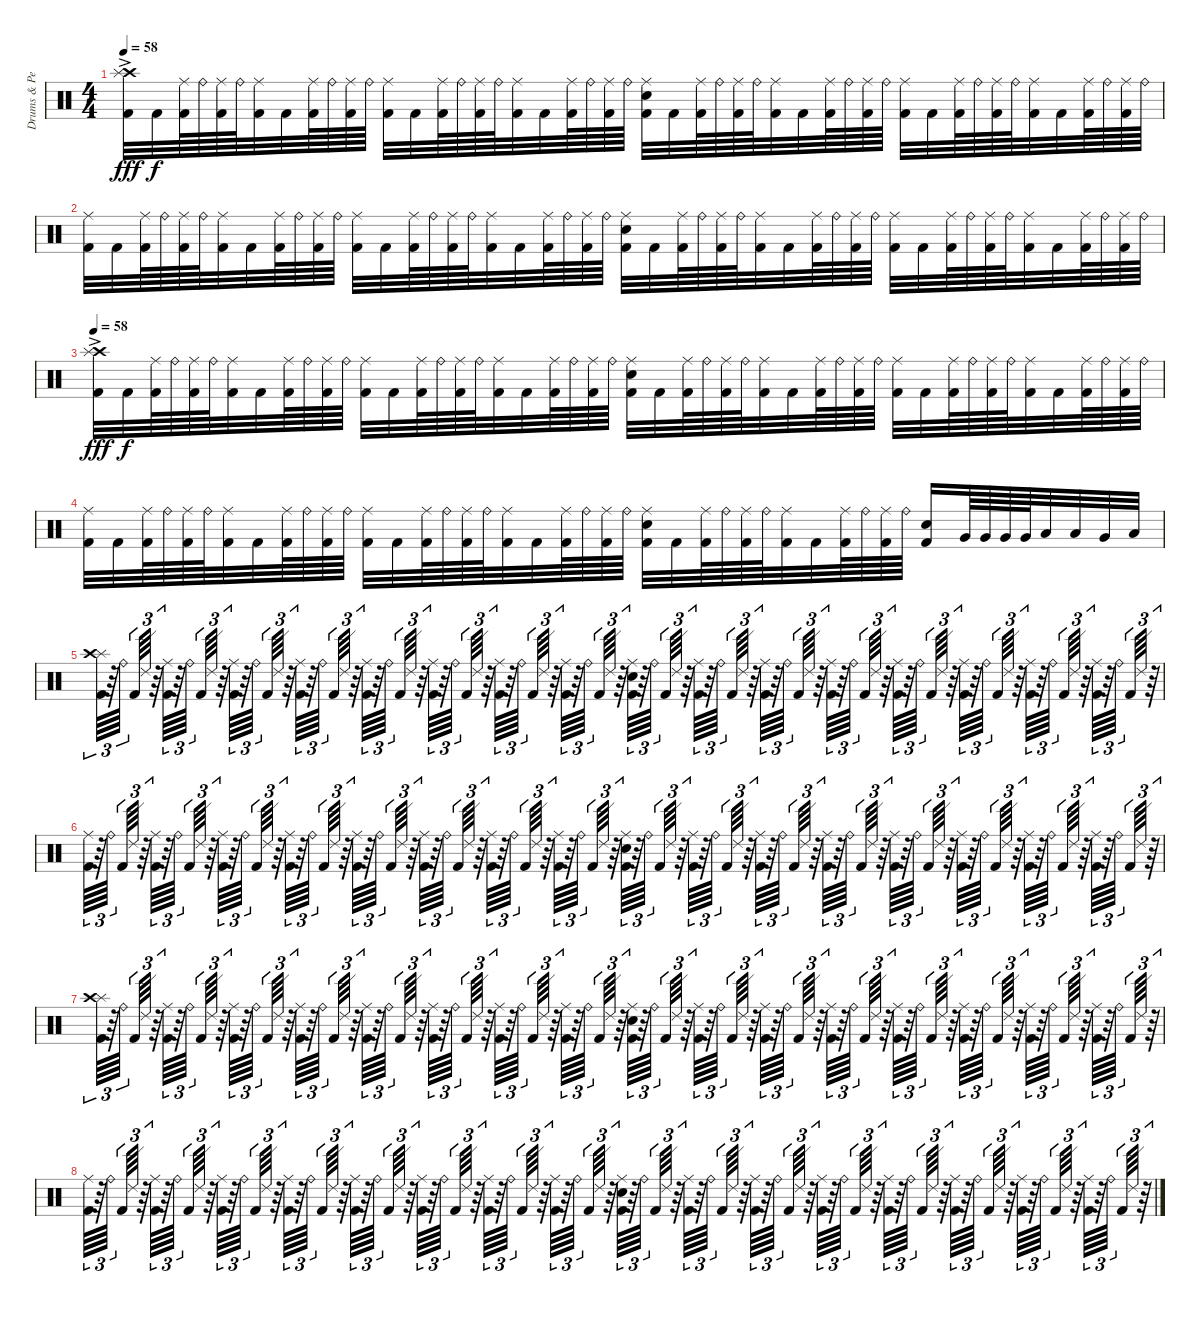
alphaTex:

\track ("Drums & Percussion" "Drums & Pe") {instrument percussion}
\staff {score}
\articulation defaults
\ts (4 4)
\tempo 58
\clef neutral
\ks c
("Crash high (hit)" "Splash (hit)"{ac} "Kick (hit) 2").32{dy fff volume 6} "Kick (hit) 2".32{dy f} ("Ride (middle)" "Kick (hit) 2").64 "Ride (bell)".64 ("Ride (middle)" "Kick (hit) 2").64 "Ride (bell)".64 ("Ride (middle)" "Kick (hit) 2").32 "Kick (hit) 2".32 ("Ride (middle)" "Kick (hit) 2").64 "Ride (bell)".64 ("Ride (middle)" "Kick (hit) 2").64 "Ride (bell)".64 ("Ride (middle)" "Kick (hit) 2").32 "Kick (hit) 2".32 ("Ride (middle)" "Kick (hit) 2").64 "Ride (bell)".64 ("Ride (middle)" "Kick (hit) 2").64 "Ride (bell)".64 ("Ride (middle)" "Kick (hit) 2").32 "Kick (hit) 2".32 ("Ride (middle)" "Kick (hit) 2").64 "Ride (bell)".64 ("Ride (middle)" "Kick (hit) 2").64 "Ride (bell)".64 ("Ride (middle)" "Electric Snare (hit)" "Kick (hit) 2").32 "Kick (hit) 2".32 ("Ride (middle)" "Kick (hit) 2").64 "Ride (bell)".64 ("Ride (middle)" "Kick (hit) 2").64 "Ride (bell)".64 ("Ride (middle)" "Kick (hit) 2").32 "Kick (hit) 2".32 ("Ride (middle)" "Kick (hit) 2").64 "Ride (bell)".64 ("Ride (middle)" "Kick (hit) 2").64 "Ride (bell)".64 ("Ride (middle)" "Kick (hit) 2").32 "Kick (hit) 2".32 ("Ride (middle)" "Kick (hit) 2").64 "Ride (bell)".64 ("Ride (middle)" "Kick (hit) 2").64 "Ride (bell)".64 ("Ride (middle)" "Kick (hit) 2").32 "Kick (hit) 2".32 ("Ride (middle)" "Kick (hit) 2").64 "Ride (bell)".64 ("Ride (middle)" "Kick (hit) 2").64 "Ride (bell)".64 |
("Ride (middle)" "Kick (hit) 2").32 "Kick (hit) 2".32 ("Ride (middle)" "Kick (hit) 2").64 "Ride (bell)".64 ("Ride (middle)" "Kick (hit) 2").64 "Ride (bell)".64 ("Ride (middle)" "Kick (hit) 2").32 "Kick (hit) 2".32 ("Ride (middle)" "Kick (hit) 2").64 "Ride (bell)".64 ("Ride (middle)" "Kick (hit) 2").64 "Ride (bell)".64 ("Ride (middle)" "Kick (hit) 2").32 "Kick (hit) 2".32 ("Ride (middle)" "Kick (hit) 2").64 "Ride (bell)".64 ("Ride (middle)" "Kick (hit) 2").64 "Ride (bell)".64 ("Ride (middle)" "Kick (hit) 2").32 "Kick (hit) 2".32 ("Ride (middle)" "Kick (hit) 2").64 "Ride (bell)".64 ("Ride (middle)" "Kick (hit) 2").64 "Ride (bell)".64 ("Ride (middle)" "Electric Snare (hit)" "Kick (hit) 2").32 "Kick (hit) 2".32 ("Ride (middle)" "Kick (hit) 2").64 "Ride (bell)".64 ("Ride (middle)" "Kick (hit) 2").64 "Ride (bell)".64 ("Ride (middle)" "Kick (hit) 2").32 "Kick (hit) 2".32 ("Ride (middle)" "Kick (hit) 2").64 "Ride (bell)".64 ("Ride (middle)" "Kick (hit) 2").64 "Ride (bell)".64 ("Ride (middle)" "Kick (hit) 2").32 "Kick (hit) 2".32 ("Ride (middle)" "Kick (hit) 2").64 "Ride (bell)".64 ("Ride (middle)" "Kick (hit) 2").64 "Ride (bell)".64 ("Ride (middle)" "Kick (hit) 2").32 "Kick (hit) 2".32 ("Ride (middle)" "Kick (hit) 2").64 "Ride (bell)".64 ("Ride (middle)" "Kick (hit) 2").64 "Ride (bell)".64 |
\tempo 58
("Crash high (hit)" "Splash (hit)"{ac} "Kick (hit) 2").32{dy fff} "Kick (hit) 2".32{dy f} ("Ride (middle)" "Kick (hit) 2").64 "Ride (bell)".64 ("Ride (middle)" "Kick (hit) 2").64 "Ride (bell)".64 ("Ride (middle)" "Kick (hit) 2").32 "Kick (hit) 2".32 ("Ride (middle)" "Kick (hit) 2").64 "Ride (bell)".64 ("Ride (middle)" "Kick (hit) 2").64 "Ride (bell)".64 ("Ride (middle)" "Kick (hit) 2").32 "Kick (hit) 2".32 ("Ride (middle)" "Kick (hit) 2").64 "Ride (bell)".64 ("Ride (middle)" "Kick (hit) 2").64 "Ride (bell)".64 ("Ride (middle)" "Kick (hit) 2").32 "Kick (hit) 2".32 ("Ride (middle)" "Kick (hit) 2").64 "Ride (bell)".64 ("Ride (middle)" "Kick (hit) 2").64 "Ride (bell)".64 ("Ride (middle)" "Electric Snare (hit)" "Kick (hit) 2").32 "Kick (hit) 2".32 ("Ride (middle)" "Kick (hit) 2").64 "Ride (bell)".64 ("Ride (middle)" "Kick (hit) 2").64 "Ride (bell)".64 ("Ride (middle)" "Kick (hit) 2").32 "Kick (hit) 2".32 ("Ride (middle)" "Kick (hit) 2").64 "Ride (bell)".64 ("Ride (middle)" "Kick (hit) 2").64 "Ride (bell)".64 ("Ride (middle)" "Kick (hit) 2").32 "Kick (hit) 2".32 ("Ride (middle)" "Kick (hit) 2").64 "Ride (bell)".64 ("Ride (middle)" "Kick (hit) 2").64 "Ride (bell)".64 ("Ride (middle)" "Kick (hit) 2").32 "Kick (hit) 2".32 ("Ride (middle)" "Kick (hit) 2").64 "Ride (bell)".64 ("Ride (middle)" "Kick (hit) 2").64 "Ride (bell)".64 |
("Ride (middle)" "Kick (hit) 2").32 "Kick (hit) 2".32 ("Ride (middle)" "Kick (hit) 2").64 "Ride (bell)".64 ("Ride (middle)" "Kick (hit) 2").64 "Ride (bell)".64 ("Ride (middle)" "Kick (hit) 2").32 "Kick (hit) 2".32 ("Ride (middle)" "Kick (hit) 2").64 "Ride (bell)".64 ("Ride (middle)" "Kick (hit) 2").64 "Ride (bell)".64 ("Ride (middle)" "Kick (hit) 2").32 "Kick (hit) 2".32 ("Ride (middle)" "Kick (hit) 2").64 "Ride (bell)".64 ("Ride (middle)" "Kick (hit) 2").64 "Ride (bell)".64 ("Ride (middle)" "Kick (hit) 2").32 "Kick (hit) 2".32 ("Ride (middle)" "Kick (hit) 2").64 "Ride (bell)".64 ("Ride (middle)" "Kick (hit) 2").64 "Ride (bell)".64 ("Ride (middle)" "Electric Snare (hit)" "Kick (hit) 2").32 "Kick (hit) 2".32 ("Ride (middle)" "Kick (hit) 2").64 "Ride (bell)".64 ("Ride (middle)" "Kick (hit) 2").64 "Ride (bell)".64 ("Ride (middle)" "Kick (hit) 2").32 "Kick (hit) 2".32 ("Ride (middle)" "Kick (hit) 2").64 "Ride (bell)".64 ("Ride (middle)" "Kick (hit) 2").64 "Ride (bell)".64 ("Electric Snare (hit)" "Kick (hit) 2").16 "Very Low Tom (hit)".64 "Very Low Tom (hit)".64 "Very Low Tom (hit)".64 "Very Low Tom (hit)".64 "Low Tom (hit)".32 "Low Tom (hit)".32 "Very Low Tom (hit)".32 "Low Floor Tom (hit)".32 |
("Splash (hit)" "Crash high (hit)" "Kick (hit) 2").64{tu (3 2) volume 0} r.64{tu (3 2)} "Ride (bell)".64{tu (3 2) beam splitsecondary} "Kick (hit) 2".64{tu (3 2)} "Ride (edge) 2".64{tu (3 2)} r.64{tu (3 2)} ("Ride (middle)" "Kick (hit) 2").64{tu (3 2)} r.64{tu (3 2)} "Ride (bell)".64{tu (3 2) beam splitsecondary} "Kick (hit) 2".64{tu (3 2)} "Ride (edge) 2".64{tu (3 2)} r.64{tu (3 2)} ("Ride (middle)" "Kick (hit) 2").64{tu (3 2)} r.64{tu (3 2)} "Ride (bell)".64{tu (3 2) beam splitsecondary} "Kick (hit) 2".64{tu (3 2)} "Ride (edge) 2".64{tu (3 2)} r.64{tu (3 2)} ("Ride (middle)" "Kick (hit) 2").64{tu (3 2)} r.64{tu (3 2)} "Ride (bell)".64{tu (3 2) beam splitsecondary} "Kick (hit) 2".64{tu (3 2)} "Ride (edge) 2".64{tu (3 2)} r.64{tu (3 2)} ("Ride (middle)" "Kick (hit) 2").64{tu (3 2)} r.64{tu (3 2)} "Ride (bell)".64{tu (3 2) beam splitsecondary} "Kick (hit) 2".64{tu (3 2)} "Ride (edge) 2".64{tu (3 2)} r.64{tu (3 2)} ("Ride (middle)" "Kick (hit) 2").64{tu (3 2)} r.64{tu (3 2)} "Ride (bell)".64{tu (3 2) beam splitsecondary} "Kick (hit) 2".64{tu (3 2)} "Ride (edge) 2".64{tu (3 2)} r.64{tu (3 2)} ("Ride (middle)" "Kick (hit) 2").64{tu (3 2)} r.64{tu (3 2)} "Ride (bell)".64{tu (3 2) beam splitsecondary} "Kick (hit) 2".64{tu (3 2)} "Ride (edge) 2".64{tu (3 2)} r.64{tu (3 2)} ("Ride (middle)" "Kick (hit) 2").64{tu (3 2)} r.64{tu (3 2)} "Ride (bell)".64{tu (3 2) beam splitsecondary} "Kick (hit) 2".64{tu (3 2)} "Ride (edge) 2".64{tu (3 2)} r.64{tu (3 2)} ("Ride (middle)" "Electric Snare (hit)" "Kick (hit) 2").64{tu (3 2)} r.64{tu (3 2)} "Ride (bell)".64{tu (3 2) beam splitsecondary} "Kick (hit) 2".64{tu (3 2)} "Ride (edge) 2".64{tu (3 2)} r.64{tu (3 2)} ("Ride (middle)" "Kick (hit) 2").64{tu (3 2)} r.64{tu (3 2)} "Ride (bell)".64{tu (3 2) beam splitsecondary} "Kick (hit) 2".64{tu (3 2)} "Ride (edge) 2".64{tu (3 2)} r.64{tu (3 2)} ("Ride (middle)" "Kick (hit) 2").64{tu (3 2)} r.64{tu (3 2)} "Ride (bell)".64{tu (3 2) beam splitsecondary} "Kick (hit) 2".64{tu (3 2)} "Ride (edge) 2".64{tu (3 2)} r.64{tu (3 2)} ("Ride (middle)" "Kick (hit) 2").64{tu (3 2)} r.64{tu (3 2)} "Ride (bell)".64{tu (3 2) beam splitsecondary} "Kick (hit) 2".64{tu (3 2)} "Ride (edge) 2".64{tu (3 2)} r.64{tu (3 2)} ("Ride (middle)" "Kick (hit) 2").64{tu (3 2)} r.64{tu (3 2)} "Ride (bell)".64{tu (3 2) beam splitsecondary} "Kick (hit) 2".64{tu (3 2)} "Ride (edge) 2".64{tu (3 2)} r.64{tu (3 2)} ("Ride (middle)" "Kick (hit) 2").64{tu (3 2)} r.64{tu (3 2)} "Ride (bell)".64{tu (3 2) beam splitsecondary} "Kick (hit) 2".64{tu (3 2)} "Ride (edge) 2".64{tu (3 2)} r.64{tu (3 2)} ("Ride (middle)" "Kick (hit) 2").64{tu (3 2)} r.64{tu (3 2)} "Ride (bell)".64{tu (3 2) beam splitsecondary} "Kick (hit) 2".64{tu (3 2)} "Ride (edge) 2".64{tu (3 2)} r.64{tu (3 2)} ("Ride (middle)" "Kick (hit) 2").64{tu (3 2)} r.64{tu (3 2)} "Ride (bell)".64{tu (3 2) beam splitsecondary} "Kick (hit) 2".64{tu (3 2)} "Ride (edge) 2".64{tu (3 2)} r.64{tu (3 2)} |
("Ride (middle)" "Kick (hit) 2").64{tu (3 2)} r.64{tu (3 2)} "Ride (bell)".64{tu (3 2) beam splitsecondary} "Kick (hit) 2".64{tu (3 2)} "Ride (edge) 2".64{tu (3 2)} r.64{tu (3 2)} ("Ride (middle)" "Kick (hit) 2").64{tu (3 2)} r.64{tu (3 2)} "Ride (bell)".64{tu (3 2) beam splitsecondary} "Kick (hit) 2".64{tu (3 2)} "Ride (edge) 2".64{tu (3 2)} r.64{tu (3 2)} ("Ride (middle)" "Kick (hit) 2").64{tu (3 2)} r.64{tu (3 2)} "Ride (bell)".64{tu (3 2) beam splitsecondary} "Kick (hit) 2".64{tu (3 2)} "Ride (edge) 2".64{tu (3 2)} r.64{tu (3 2)} ("Ride (middle)" "Kick (hit) 2").64{tu (3 2)} r.64{tu (3 2)} "Ride (bell)".64{tu (3 2) beam splitsecondary} "Kick (hit) 2".64{tu (3 2)} "Ride (edge) 2".64{tu (3 2)} r.64{tu (3 2)} ("Ride (middle)" "Kick (hit) 2").64{tu (3 2)} r.64{tu (3 2)} "Ride (bell)".64{tu (3 2) beam splitsecondary} "Kick (hit) 2".64{tu (3 2)} "Ride (edge) 2".64{tu (3 2)} r.64{tu (3 2)} ("Ride (middle)" "Kick (hit) 2").64{tu (3 2)} r.64{tu (3 2)} "Ride (bell)".64{tu (3 2) beam splitsecondary} "Kick (hit) 2".64{tu (3 2)} "Ride (edge) 2".64{tu (3 2)} r.64{tu (3 2)} ("Ride (middle)" "Kick (hit) 2").64{tu (3 2)} r.64{tu (3 2)} "Ride (bell)".64{tu (3 2) beam splitsecondary} "Kick (hit) 2".64{tu (3 2)} "Ride (edge) 2".64{tu (3 2)} r.64{tu (3 2)} ("Ride (middle)" "Kick (hit) 2").64{tu (3 2)} r.64{tu (3 2)} "Ride (bell)".64{tu (3 2) beam splitsecondary} "Kick (hit) 2".64{tu (3 2)} "Ride (edge) 2".64{tu (3 2)} r.64{tu (3 2)} ("Ride (middle)" "Electric Snare (hit)" "Kick (hit) 2").64{tu (3 2)} r.64{tu (3 2)} "Ride (bell)".64{tu (3 2) beam splitsecondary} "Kick (hit) 2".64{tu (3 2)} "Ride (edge) 2".64{tu (3 2)} r.64{tu (3 2)} ("Ride (middle)" "Kick (hit) 2").64{tu (3 2)} r.64{tu (3 2)} "Ride (bell)".64{tu (3 2) beam splitsecondary} "Kick (hit) 2".64{tu (3 2)} "Ride (edge) 2".64{tu (3 2)} r.64{tu (3 2)} ("Ride (middle)" "Kick (hit) 2").64{tu (3 2)} r.64{tu (3 2)} "Ride (bell)".64{tu (3 2) beam splitsecondary} "Kick (hit) 2".64{tu (3 2)} "Ride (edge) 2".64{tu (3 2)} r.64{tu (3 2)} ("Ride (middle)" "Kick (hit) 2").64{tu (3 2)} r.64{tu (3 2)} "Ride (bell)".64{tu (3 2) beam splitsecondary} "Kick (hit) 2".64{tu (3 2)} "Ride (edge) 2".64{tu (3 2)} r.64{tu (3 2)} ("Ride (middle)" "Kick (hit) 2").64{tu (3 2)} r.64{tu (3 2)} "Ride (bell)".64{tu (3 2) beam splitsecondary} "Kick (hit) 2".64{tu (3 2)} "Ride (edge) 2".64{tu (3 2)} r.64{tu (3 2)} ("Ride (middle)" "Kick (hit) 2").64{tu (3 2)} r.64{tu (3 2)} "Ride (bell)".64{tu (3 2) beam splitsecondary} "Kick (hit) 2".64{tu (3 2)} "Ride (edge) 2".64{tu (3 2)} r.64{tu (3 2)} ("Ride (middle)" "Kick (hit) 2").64{tu (3 2)} r.64{tu (3 2)} "Ride (bell)".64{tu (3 2) beam splitsecondary} "Kick (hit) 2".64{tu (3 2)} "Ride (edge) 2".64{tu (3 2)} r.64{tu (3 2)} ("Ride (middle)" "Kick (hit) 2").64{tu (3 2)} r.64{tu (3 2)} "Ride (bell)".64{tu (3 2) beam splitsecondary} "Kick (hit) 2".64{tu (3 2)} "Ride (edge) 2".64{tu (3 2)} r.64{tu (3 2)} |
("Splash (hit)" "Crash high (hit)" "Kick (hit) 2").64{tu (3 2)} r.64{tu (3 2)} "Ride (bell)".64{tu (3 2) beam splitsecondary} "Kick (hit) 2".64{tu (3 2)} "Ride (edge) 2".64{tu (3 2)} r.64{tu (3 2)} ("Ride (middle)" "Kick (hit) 2").64{tu (3 2)} r.64{tu (3 2)} "Ride (bell)".64{tu (3 2) beam splitsecondary} "Kick (hit) 2".64{tu (3 2)} "Ride (edge) 2".64{tu (3 2)} r.64{tu (3 2)} ("Ride (middle)" "Kick (hit) 2").64{tu (3 2)} r.64{tu (3 2)} "Ride (bell)".64{tu (3 2) beam splitsecondary} "Kick (hit) 2".64{tu (3 2)} "Ride (edge) 2".64{tu (3 2)} r.64{tu (3 2)} ("Ride (middle)" "Kick (hit) 2").64{tu (3 2)} r.64{tu (3 2)} "Ride (bell)".64{tu (3 2) beam splitsecondary} "Kick (hit) 2".64{tu (3 2)} "Ride (edge) 2".64{tu (3 2)} r.64{tu (3 2)} ("Ride (middle)" "Kick (hit) 2").64{tu (3 2)} r.64{tu (3 2)} "Ride (bell)".64{tu (3 2) beam splitsecondary} "Kick (hit) 2".64{tu (3 2)} "Ride (edge) 2".64{tu (3 2)} r.64{tu (3 2)} ("Ride (middle)" "Kick (hit) 2").64{tu (3 2)} r.64{tu (3 2)} "Ride (bell)".64{tu (3 2) beam splitsecondary} "Kick (hit) 2".64{tu (3 2)} "Ride (edge) 2".64{tu (3 2)} r.64{tu (3 2)} ("Ride (middle)" "Kick (hit) 2").64{tu (3 2)} r.64{tu (3 2)} "Ride (bell)".64{tu (3 2) beam splitsecondary} "Kick (hit) 2".64{tu (3 2)} "Ride (edge) 2".64{tu (3 2)} r.64{tu (3 2)} ("Ride (middle)" "Kick (hit) 2").64{tu (3 2)} r.64{tu (3 2)} "Ride (bell)".64{tu (3 2) beam splitsecondary} "Kick (hit) 2".64{tu (3 2)} "Ride (edge) 2".64{tu (3 2)} r.64{tu (3 2)} ("Ride (middle)" "Electric Snare (hit)" "Kick (hit) 2").64{tu (3 2)} r.64{tu (3 2)} "Ride (bell)".64{tu (3 2) beam splitsecondary} "Kick (hit) 2".64{tu (3 2)} "Ride (edge) 2".64{tu (3 2)} r.64{tu (3 2)} ("Ride (middle)" "Kick (hit) 2").64{tu (3 2)} r.64{tu (3 2)} "Ride (bell)".64{tu (3 2) beam splitsecondary} "Kick (hit) 2".64{tu (3 2)} "Ride (edge) 2".64{tu (3 2)} r.64{tu (3 2)} ("Ride (middle)" "Kick (hit) 2").64{tu (3 2)} r.64{tu (3 2)} "Ride (bell)".64{tu (3 2) beam splitsecondary} "Kick (hit) 2".64{tu (3 2)} "Ride (edge) 2".64{tu (3 2)} r.64{tu (3 2)} ("Ride (middle)" "Kick (hit) 2").64{tu (3 2)} r.64{tu (3 2)} "Ride (bell)".64{tu (3 2) beam splitsecondary} "Kick (hit) 2".64{tu (3 2)} "Ride (edge) 2".64{tu (3 2)} r.64{tu (3 2)} ("Ride (middle)" "Kick (hit) 2").64{tu (3 2)} r.64{tu (3 2)} "Ride (bell)".64{tu (3 2) beam splitsecondary} "Kick (hit) 2".64{tu (3 2)} "Ride (edge) 2".64{tu (3 2)} r.64{tu (3 2)} ("Ride (middle)" "Kick (hit) 2").64{tu (3 2)} r.64{tu (3 2)} "Ride (bell)".64{tu (3 2) beam splitsecondary} "Kick (hit) 2".64{tu (3 2)} "Ride (edge) 2".64{tu (3 2)} r.64{tu (3 2)} ("Ride (middle)" "Kick (hit) 2").64{tu (3 2)} r.64{tu (3 2)} "Ride (bell)".64{tu (3 2) beam splitsecondary} "Kick (hit) 2".64{tu (3 2)} "Ride (edge) 2".64{tu (3 2)} r.64{tu (3 2)} ("Ride (middle)" "Kick (hit) 2").64{tu (3 2)} r.64{tu (3 2)} "Ride (bell)".64{tu (3 2) beam splitsecondary} "Kick (hit) 2".64{tu (3 2)} "Ride (edge) 2".64{tu (3 2)} r.64{tu (3 2)} |
("Ride (middle)" "Kick (hit) 2").64{tu (3 2)} r.64{tu (3 2)} "Ride (bell)".64{tu (3 2) beam splitsecondary} "Kick (hit) 2".64{tu (3 2)} "Ride (edge) 2".64{tu (3 2)} r.64{tu (3 2)} ("Ride (middle)" "Kick (hit) 2").64{tu (3 2)} r.64{tu (3 2)} "Ride (bell)".64{tu (3 2) beam splitsecondary} "Kick (hit) 2".64{tu (3 2)} "Ride (edge) 2".64{tu (3 2)} r.64{tu (3 2)} ("Ride (middle)" "Kick (hit) 2").64{tu (3 2)} r.64{tu (3 2)} "Ride (bell)".64{tu (3 2) beam splitsecondary} "Kick (hit) 2".64{tu (3 2)} "Ride (edge) 2".64{tu (3 2)} r.64{tu (3 2)} ("Ride (middle)" "Kick (hit) 2").64{tu (3 2)} r.64{tu (3 2)} "Ride (bell)".64{tu (3 2) beam splitsecondary} "Kick (hit) 2".64{tu (3 2)} "Ride (edge) 2".64{tu (3 2)} r.64{tu (3 2)} ("Ride (middle)" "Kick (hit) 2").64{tu (3 2)} r.64{tu (3 2)} "Ride (bell)".64{tu (3 2) beam splitsecondary} "Kick (hit) 2".64{tu (3 2)} "Ride (edge) 2".64{tu (3 2)} r.64{tu (3 2)} ("Ride (middle)" "Kick (hit) 2").64{tu (3 2)} r.64{tu (3 2)} "Ride (bell)".64{tu (3 2) beam splitsecondary} "Kick (hit) 2".64{tu (3 2)} "Ride (edge) 2".64{tu (3 2)} r.64{tu (3 2)} ("Ride (middle)" "Kick (hit) 2").64{tu (3 2)} r.64{tu (3 2)} "Ride (bell)".64{tu (3 2) beam splitsecondary} "Kick (hit) 2".64{tu (3 2)} "Ride (edge) 2".64{tu (3 2)} r.64{tu (3 2)} ("Ride (middle)" "Kick (hit) 2").64{tu (3 2)} r.64{tu (3 2)} "Ride (bell)".64{tu (3 2) beam splitsecondary} "Kick (hit) 2".64{tu (3 2)} "Ride (edge) 2".64{tu (3 2)} r.64{tu (3 2)} ("Ride (middle)" "Electric Snare (hit)" "Kick (hit) 2").64{tu (3 2)} r.64{tu (3 2)} "Ride (bell)".64{tu (3 2) beam splitsecondary} "Kick (hit) 2".64{tu (3 2)} "Ride (edge) 2".64{tu (3 2)} r.64{tu (3 2)} ("Ride (middle)" "Kick (hit) 2").64{tu (3 2)} r.64{tu (3 2)} "Ride (bell)".64{tu (3 2) beam splitsecondary} "Kick (hit) 2".64{tu (3 2)} "Ride (edge) 2".64{tu (3 2)} r.64{tu (3 2)} ("Ride (middle)" "Kick (hit) 2").64{tu (3 2)} r.64{tu (3 2)} "Ride (bell)".64{tu (3 2) beam splitsecondary} "Kick (hit) 2".64{tu (3 2)} "Ride (edge) 2".64{tu (3 2)} r.64{tu (3 2)} ("Ride (middle)" "Kick (hit) 2").64{tu (3 2)} r.64{tu (3 2)} "Ride (bell)".64{tu (3 2) beam splitsecondary} "Kick (hit) 2".64{tu (3 2)} "Ride (edge) 2".64{tu (3 2)} r.64{tu (3 2)} ("Ride (middle)" "Kick (hit) 2").64{tu (3 2)} r.64{tu (3 2)} "Ride (bell)".64{tu (3 2) beam splitsecondary} "Kick (hit) 2".64{tu (3 2)} "Ride (edge) 2".64{tu (3 2)} r.64{tu (3 2)} ("Ride (middle)" "Kick (hit) 2").64{tu (3 2)} r.64{tu (3 2)} "Ride (bell)".64{tu (3 2) beam splitsecondary} "Kick (hit) 2".64{tu (3 2)} "Ride (edge) 2".64{tu (3 2)} r.64{tu (3 2)} ("Ride (middle)" "Kick (hit) 2").64{tu (3 2)} r.64{tu (3 2)} "Ride (bell)".64{tu (3 2) beam splitsecondary} "Kick (hit) 2".64{tu (3 2)} "Ride (edge) 2".64{tu (3 2)} r.64{tu (3 2)} ("Ride (middle)" "Kick (hit) 2").64{tu (3 2)} r.64{tu (3 2)} "Ride (bell)".64{tu (3 2) beam splitsecondary} "Kick (hit) 2".64{tu (3 2)} "Ride (edge) 2".64{tu (3 2)} r.64{tu (3 2)}
